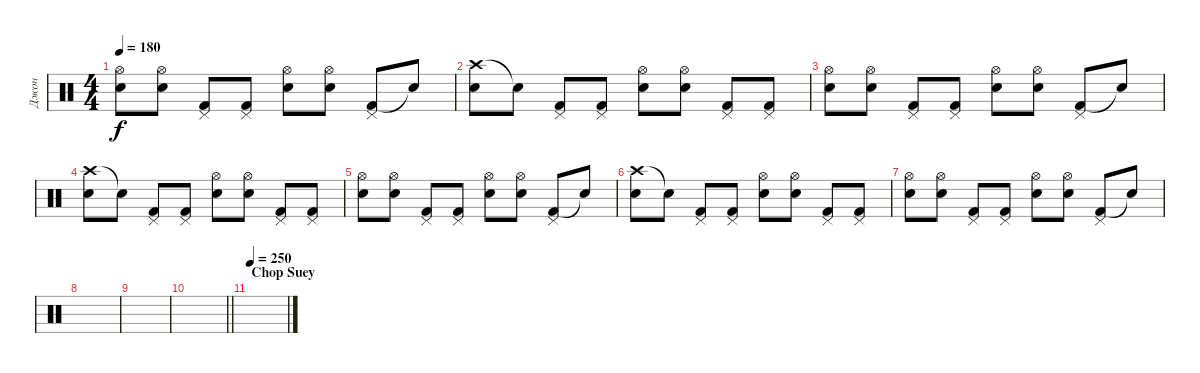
\track ("Джон" "Джон") {instrument percussion}
\staff {score}
\articulation defaults
\ts (4 4)
\tempo 180
\clef neutral
\ks c
("Snare (hit) 2" "Hi-Hat (open)").8{dy f} ("Snare (hit) 2" "Hi-Hat (open)").8 ("Kick (hit) 2" "Pedal Hi-Hat (hit)").8 ("Kick (hit) 2" "Pedal Hi-Hat (hit)").8 ("Snare (hit) 2" "Hi-Hat (open)").8 ("Snare (hit) 2" "Hi-Hat (open)").8 ("Kick (hit) 2" "Pedal Hi-Hat (hit)").8 "Snare (hit)"{t}.8 |
("Crash high (hit)" "Electric Snare (hit)").8 "Snare (hit)"{t}.8 ("Kick (hit) 2" "Pedal Hi-Hat (hit)").8 ("Kick (hit) 2" "Pedal Hi-Hat (hit)").8 ("Snare (hit) 2" "Hi-Hat (open)").8 ("Snare (hit) 2" "Hi-Hat (open)").8 ("Kick (hit) 2" "Pedal Hi-Hat (hit)").8 ("Kick (hit) 2" "Pedal Hi-Hat (hit)").8 |
("Snare (hit) 2" "Hi-Hat (open)").8 ("Snare (hit) 2" "Hi-Hat (open)").8 ("Kick (hit) 2" "Pedal Hi-Hat (hit)").8 ("Kick (hit) 2" "Pedal Hi-Hat (hit)").8 ("Snare (hit) 2" "Hi-Hat (open)").8 ("Snare (hit) 2" "Hi-Hat (open)").8 ("Kick (hit) 2" "Pedal Hi-Hat (hit)").8 "Snare (hit)"{t}.8 |
("Crash high (hit)" "Electric Snare (hit)").8 "Snare (hit)"{t}.8 ("Kick (hit) 2" "Pedal Hi-Hat (hit)").8 ("Kick (hit) 2" "Pedal Hi-Hat (hit)").8 ("Snare (hit) 2" "Hi-Hat (open)").8 ("Snare (hit) 2" "Hi-Hat (open)").8 ("Kick (hit) 2" "Pedal Hi-Hat (hit)").8 ("Kick (hit) 2" "Pedal Hi-Hat (hit)").8 |
("Snare (hit) 2" "Hi-Hat (open)").8 ("Snare (hit) 2" "Hi-Hat (open)").8 ("Kick (hit) 2" "Pedal Hi-Hat (hit)").8 ("Kick (hit) 2" "Pedal Hi-Hat (hit)").8 ("Snare (hit) 2" "Hi-Hat (open)").8 ("Snare (hit) 2" "Hi-Hat (open)").8 ("Kick (hit) 2" "Pedal Hi-Hat (hit)").8 "Snare (hit)"{t}.8 |
("Crash high (hit)" "Electric Snare (hit)").8 "Snare (hit)"{t}.8 ("Kick (hit) 2" "Pedal Hi-Hat (hit)").8 ("Kick (hit) 2" "Pedal Hi-Hat (hit)").8 ("Snare (hit) 2" "Hi-Hat (open)").8 ("Snare (hit) 2" "Hi-Hat (open)").8 ("Kick (hit) 2" "Pedal Hi-Hat (hit)").8 ("Kick (hit) 2" "Pedal Hi-Hat (hit)").8 |
("Snare (hit) 2" "Hi-Hat (open)").8 ("Snare (hit) 2" "Hi-Hat (open)").8 ("Kick (hit) 2" "Pedal Hi-Hat (hit)").8 ("Kick (hit) 2" "Pedal Hi-Hat (hit)").8 ("Snare (hit) 2" "Hi-Hat (open)").8 ("Snare (hit) 2" "Hi-Hat (open)").8 ("Kick (hit) 2" "Pedal Hi-Hat (hit)").8 "Snare (hit)"{t}.8 |
|
|
\barLineRight lightlight
|
\section ("" "Chop Suey")
\tempo 250
